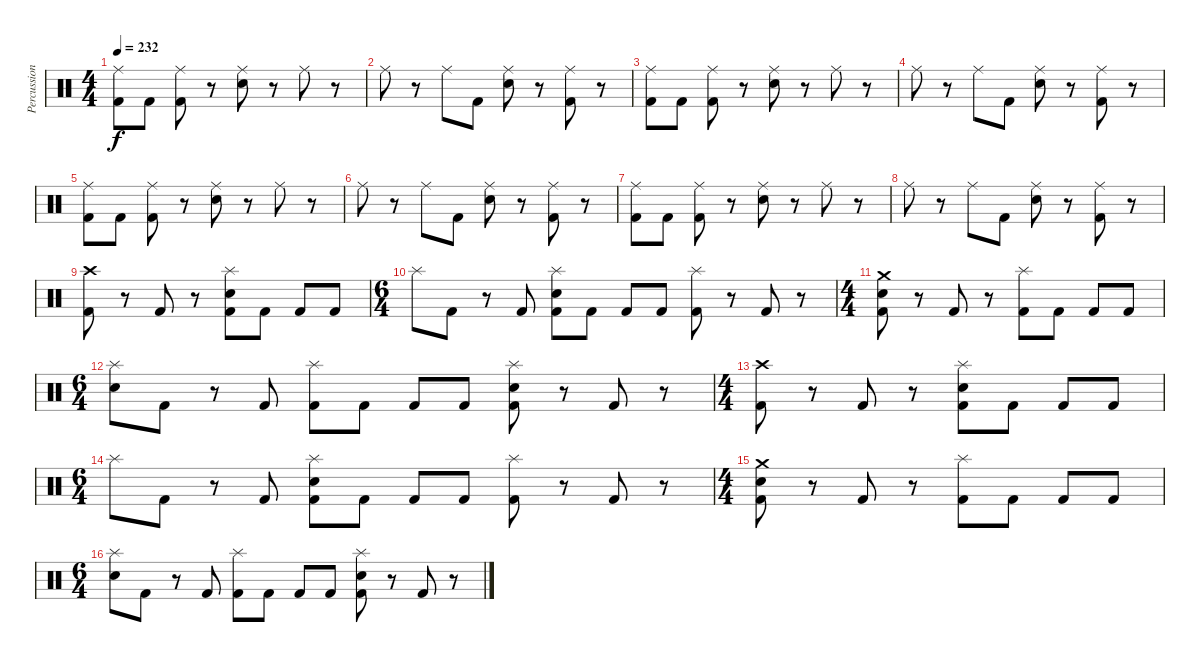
\track ("Percussion" "Percussion") {instrument percussion}
\staff {score}
\articulation defaults
\ts (4 4)
\tempo 232
\clef neutral
\ks c
("Ride (middle)" "Kick (hit) 2").8{dy f} "Kick (hit) 2".8 ("Ride (middle)" "Kick (hit) 2").8 r.8 ("Ride (middle)" "Snare (hit) 2").8 r.8 "Ride (middle)".8 r.8 |
"Ride (middle)".8 r.8 "Ride (middle)".8 "Kick (hit) 2".8 ("Ride (middle)" "Snare (hit) 2").8 r.8 ("Ride (middle)" "Kick (hit) 2").8 r.8 |
("Ride (middle)" "Kick (hit) 2").8 "Kick (hit) 2".8 ("Ride (middle)" "Kick (hit) 2").8 r.8 ("Ride (middle)" "Snare (hit) 2").8 r.8 "Ride (middle)".8 r.8 |
"Ride (middle)".8 r.8 "Ride (middle)".8 "Kick (hit) 2".8 ("Ride (middle)" "Snare (hit) 2").8 r.8 ("Ride (middle)" "Kick (hit) 2").8 r.8 |
("Ride (middle)" "Kick (hit) 2").8 "Kick (hit) 2".8 ("Ride (middle)" "Kick (hit) 2").8 r.8 ("Ride (middle)" "Snare (hit) 2").8 r.8 "Ride (middle)".8 r.8 |
"Ride (middle)".8 r.8 "Ride (middle)".8 "Kick (hit) 2".8 ("Ride (middle)" "Snare (hit) 2").8 r.8 ("Ride (middle)" "Kick (hit) 2").8 r.8 |
("Ride (middle)" "Kick (hit) 2").8 "Kick (hit) 2".8 ("Ride (middle)" "Kick (hit) 2").8 r.8 ("Ride (middle)" "Snare (hit) 2").8 r.8 "Ride (middle)".8 r.8 |
"Ride (middle)".8 r.8 "Ride (middle)".8 "Kick (hit) 2".8 ("Ride (middle)" "Snare (hit) 2").8 r.8 ("Ride (middle)" "Kick (hit) 2").8 r.8 |
("Crash high (hit)" "Kick (hit) 2").8 r.8 "Kick (hit) 2".8 r.8 ("Splash (hit)" "Snare (hit) 2" "Kick (hit) 2").8 "Kick (hit) 2".8 "Kick (hit) 2".8 "Kick (hit) 2".8 |
\ts (6 4)
"Splash (hit)".8 "Kick (hit) 2".8 r.8 "Kick (hit) 2".8 ("Splash (hit)" "Snare (hit) 2" "Kick (hit) 2").8 "Kick (hit) 2".8 "Kick (hit) 2".8 "Kick (hit) 2".8 ("Splash (hit)" "Kick (hit) 2").8 r.8 "Kick (hit) 2".8 r.8 |
\ts (4 4)
("Crash medium (hit)" "Snare (hit) 2" "Kick (hit) 2").8 r.8 "Kick (hit) 2".8 r.8 ("Splash (hit)" "Kick (hit) 2").8 "Kick (hit) 2".8 "Kick (hit) 2".8 "Kick (hit) 2".8 |
\ts (6 4)
("Splash (hit)" "Snare (hit) 2").8 "Kick (hit) 2".8 r.8 "Kick (hit) 2".8 ("Splash (hit)" "Kick (hit) 2").8 "Kick (hit) 2".8 "Kick (hit) 2".8 "Kick (hit) 2".8 ("Splash (hit)" "Snare (hit) 2" "Kick (hit) 2").8 r.8 "Kick (hit) 2".8 r.8 |
\ts (4 4)
("Crash high (hit)" "Kick (hit) 2").8 r.8 "Kick (hit) 2".8 r.8 ("Splash (hit)" "Snare (hit) 2" "Kick (hit) 2").8 "Kick (hit) 2".8 "Kick (hit) 2".8 "Kick (hit) 2".8 |
\ts (6 4)
"Splash (hit)".8 "Kick (hit) 2".8 r.8 "Kick (hit) 2".8 ("Splash (hit)" "Snare (hit) 2" "Kick (hit) 2").8 "Kick (hit) 2".8 "Kick (hit) 2".8 "Kick (hit) 2".8 ("Splash (hit)" "Kick (hit) 2").8 r.8 "Kick (hit) 2".8 r.8 |
\ts (4 4)
("Crash medium (hit)" "Snare (hit) 2" "Kick (hit) 2").8 r.8 "Kick (hit) 2".8 r.8 ("Splash (hit)" "Kick (hit) 2").8 "Kick (hit) 2".8 "Kick (hit) 2".8 "Kick (hit) 2".8 |
\ts (6 4)
("Splash (hit)" "Snare (hit) 2").8 "Kick (hit) 2".8 r.8 "Kick (hit) 2".8 ("Splash (hit)" "Kick (hit) 2").8 "Kick (hit) 2".8 "Kick (hit) 2".8 "Kick (hit) 2".8 ("Splash (hit)" "Snare (hit) 2" "Kick (hit) 2").8 r.8 "Kick (hit) 2".8 r.8
